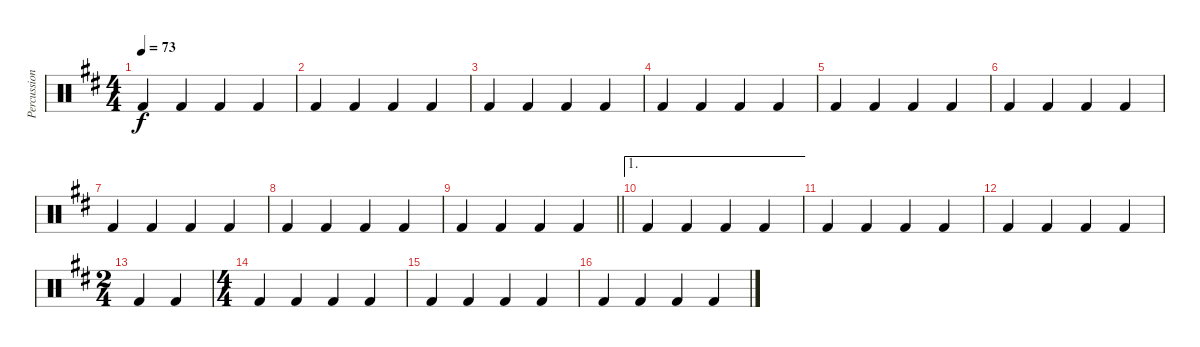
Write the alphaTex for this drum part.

\track ("Percussion" "Percussion") {instrument percussion}
\staff {score}
\articulation defaults
\ts (4 4)
\tempo 73
\clef neutral
\ks d "Kick (hit) 2".4{dy f} "Kick (hit) 2".4 "Kick (hit) 2".4 "Kick (hit) 2".4
|
"Kick (hit) 2".4 "Kick (hit) 2".4 "Kick (hit) 2".4 "Kick (hit) 2".4 |
"Kick (hit) 2".4 "Kick (hit) 2".4 "Kick (hit) 2".4 "Kick (hit) 2".4 |
"Kick (hit) 2".4 "Kick (hit) 2".4 "Kick (hit) 2".4 "Kick (hit) 2".4 |
"Kick (hit) 2".4 "Kick (hit) 2".4 "Kick (hit) 2".4 "Kick (hit) 2".4 |
"Kick (hit) 2".4 "Kick (hit) 2".4 "Kick (hit) 2".4 "Kick (hit) 2".4 |
"Kick (hit) 2".4 "Kick (hit) 2".4 "Kick (hit) 2".4 "Kick (hit) 2".4 |
"Kick (hit) 2".4 "Kick (hit) 2".4 "Kick (hit) 2".4 "Kick (hit) 2".4 |
\barLineRight lightlight "Kick (hit) 2".4 "Kick (hit) 2".4 "Kick (hit) 2".4 "Kick (hit) 2".4
|
\ae 1 "Kick (hit) 2".4 "Kick (hit) 2".4 "Kick (hit) 2".4 "Kick (hit) 2".4
|
"Kick (hit) 2".4 "Kick (hit) 2".4 "Kick (hit) 2".4 "Kick (hit) 2".4 |
"Kick (hit) 2".4 "Kick (hit) 2".4 "Kick (hit) 2".4 "Kick (hit) 2".4 |
\ts (2 4)
"Kick (hit) 2".4 "Kick (hit) 2".4 |
\ts (4 4)
"Kick (hit) 2".4 "Kick (hit) 2".4 "Kick (hit) 2".4 "Kick (hit) 2".4 |
"Kick (hit) 2".4 "Kick (hit) 2".4 "Kick (hit) 2".4 "Kick (hit) 2".4 |
"Kick (hit) 2".4 "Kick (hit) 2".4 "Kick (hit) 2".4 "Kick (hit) 2".4
